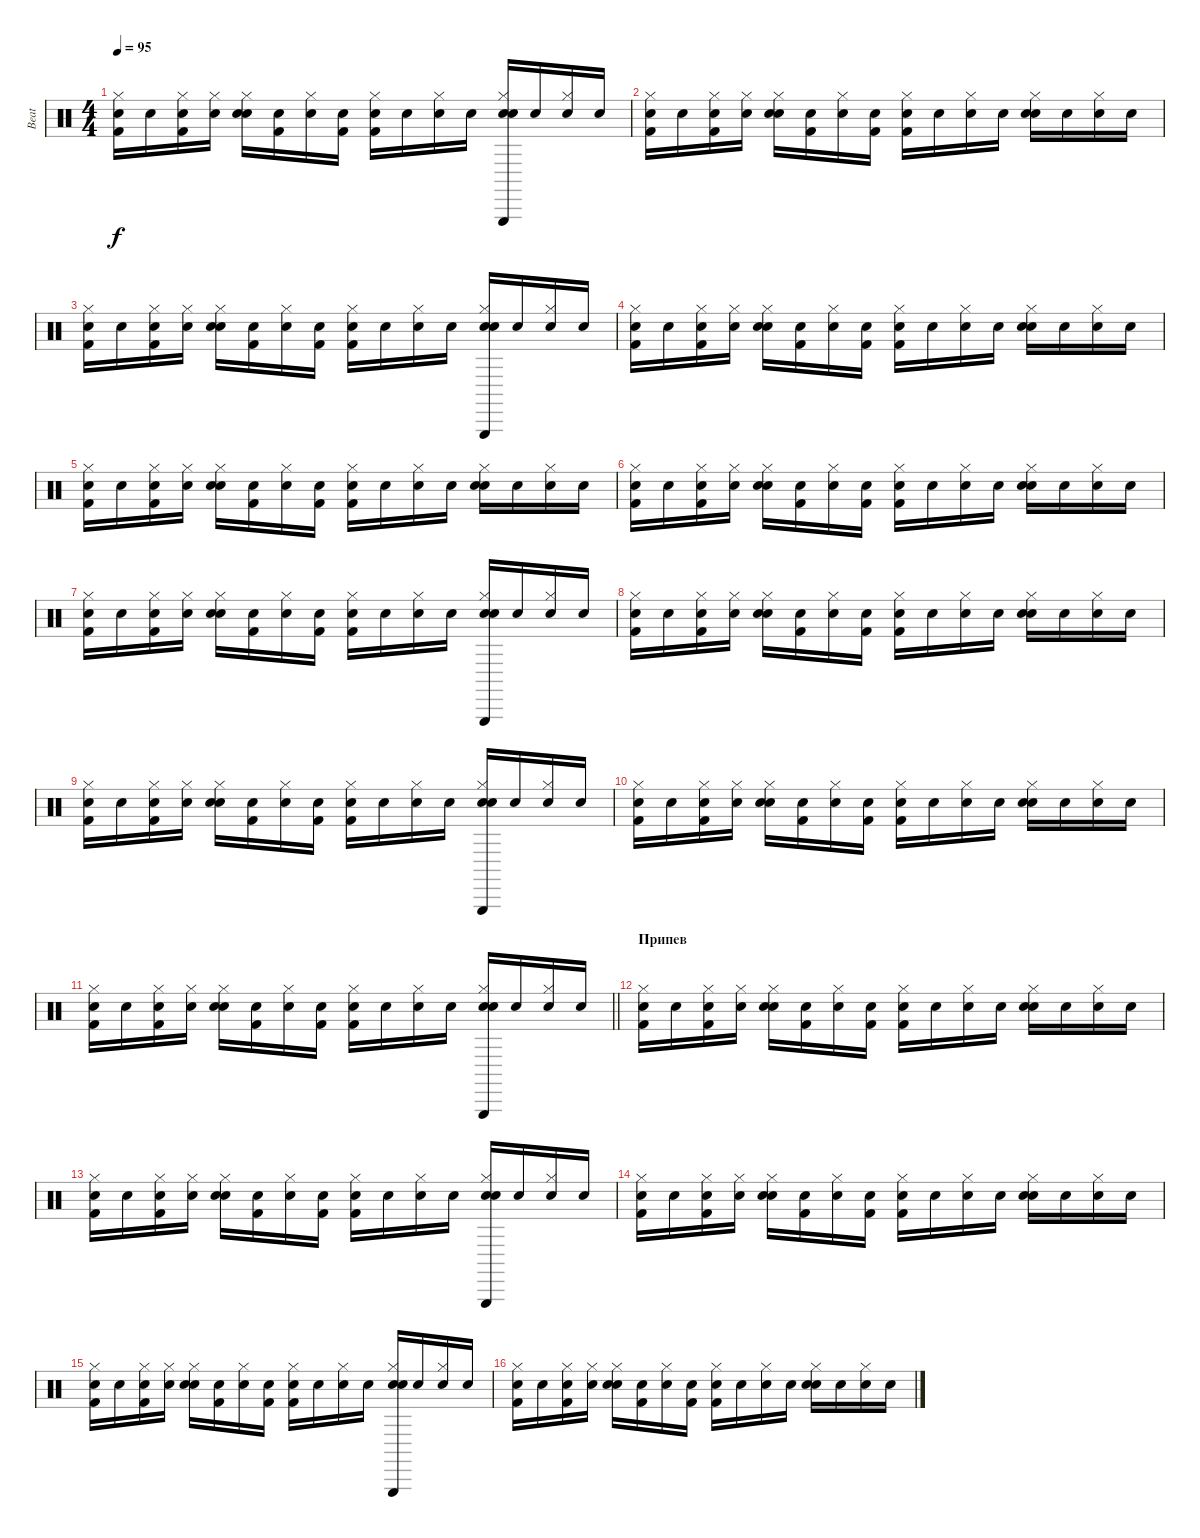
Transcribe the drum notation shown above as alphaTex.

\track ("Beat" "Beat") {instrument percussion}
\staff {score}
\articulation defaults
\ts (4 4)
\tempo 95
\clef neutral
\ks c
("Snare (hit)"{x} "Kick (hit) 2" "Hi-Hat (closed)").16{dy f} "Snare (hit)"{x}.16 ("Snare (hit)"{x} "Kick (hit) 2" "Hi-Hat (closed)").16 ("Snare (hit)"{x} "Hi-Hat (closed)").16 ("Snare (hit)"{x} "Electric Snare (hit)" "Hi-Hat (closed)").16 ("Snare (hit)"{x} "Kick (hit) 2").16 ("Snare (hit)"{x} "Hi-Hat (closed)").16 ("Snare (hit)"{x} "Kick (hit) 2").16 ("Snare (hit)"{x} "Kick (hit) 2" "Hi-Hat (closed)").16 "Snare (hit)"{x}.16 ("Snare (hit)"{x} "Hi-Hat (closed)").16 "Snare (hit)"{x}.16 ("Snare (hit)"{x} "Triangle (hit)" "Electric Snare (hit)" "Hi-Hat (closed)").16 "Snare (hit)"{x}.16 ("Snare (hit)"{x} "Hi-Hat (closed)").16 "Snare (hit)"{x}.16 |
("Snare (hit)"{x} "Kick (hit) 2" "Hi-Hat (closed)").16 "Snare (hit)"{x}.16 ("Snare (hit)"{x} "Kick (hit) 2" "Hi-Hat (closed)").16 ("Snare (hit)"{x} "Hi-Hat (closed)").16 ("Snare (hit)"{x} "Electric Snare (hit)" "Hi-Hat (closed)").16 ("Snare (hit)"{x} "Kick (hit) 2").16 ("Snare (hit)"{x} "Hi-Hat (closed)").16 ("Snare (hit)"{x} "Kick (hit) 2").16 ("Snare (hit)"{x} "Kick (hit) 2" "Hi-Hat (closed)").16 "Snare (hit)"{x}.16 ("Snare (hit)"{x} "Hi-Hat (closed)").16 "Snare (hit)"{x}.16 ("Snare (hit)"{x} "Electric Snare (hit)" "Hi-Hat (closed)").16 "Snare (hit)"{x}.16 ("Snare (hit)"{x} "Hi-Hat (closed)").16 "Snare (hit)"{x}.16 |
("Snare (hit)"{x} "Kick (hit) 2" "Hi-Hat (closed)").16 "Snare (hit)"{x}.16 ("Snare (hit)"{x} "Kick (hit) 2" "Hi-Hat (closed)").16 ("Snare (hit)"{x} "Hi-Hat (closed)").16 ("Snare (hit)"{x} "Electric Snare (hit)" "Hi-Hat (closed)").16 ("Snare (hit)"{x} "Kick (hit) 2").16 ("Snare (hit)"{x} "Hi-Hat (closed)").16 ("Snare (hit)"{x} "Kick (hit) 2").16 ("Snare (hit)"{x} "Kick (hit) 2" "Hi-Hat (closed)").16 "Snare (hit)"{x}.16 ("Snare (hit)"{x} "Hi-Hat (closed)").16 "Snare (hit)"{x}.16 ("Snare (hit)"{x} "Triangle (hit)" "Electric Snare (hit)" "Hi-Hat (closed)").16 "Snare (hit)"{x}.16 ("Snare (hit)"{x} "Hi-Hat (closed)").16 "Snare (hit)"{x}.16 |
("Snare (hit)"{x} "Kick (hit) 2" "Hi-Hat (closed)").16 "Snare (hit)"{x}.16 ("Snare (hit)"{x} "Kick (hit) 2" "Hi-Hat (closed)").16 ("Snare (hit)"{x} "Hi-Hat (closed)").16 ("Snare (hit)"{x} "Electric Snare (hit)" "Hi-Hat (closed)").16 ("Snare (hit)"{x} "Kick (hit) 2").16 ("Snare (hit)"{x} "Hi-Hat (closed)").16 ("Snare (hit)"{x} "Kick (hit) 2").16 ("Snare (hit)"{x} "Kick (hit) 2" "Hi-Hat (closed)").16 "Snare (hit)"{x}.16 ("Snare (hit)"{x} "Hi-Hat (closed)").16 "Snare (hit)"{x}.16 ("Snare (hit)"{x} "Electric Snare (hit)" "Hi-Hat (closed)").16 "Snare (hit)"{x}.16 ("Snare (hit)"{x} "Hi-Hat (closed)").16 "Snare (hit)"{x}.16 |
("Snare (hit)"{x} "Kick (hit) 2" "Hi-Hat (closed)").16 "Snare (hit)"{x}.16 ("Snare (hit)"{x} "Kick (hit) 2" "Hi-Hat (closed)").16 ("Snare (hit)"{x} "Hi-Hat (closed)").16 ("Snare (hit)"{x} "Electric Snare (hit)" "Hi-Hat (closed)").16 ("Snare (hit)"{x} "Kick (hit) 2").16 ("Snare (hit)"{x} "Hi-Hat (closed)").16 ("Snare (hit)"{x} "Kick (hit) 2").16 ("Snare (hit)"{x} "Kick (hit) 2" "Hi-Hat (closed)").16 "Snare (hit)"{x}.16 ("Snare (hit)"{x} "Hi-Hat (closed)").16 "Snare (hit)"{x}.16 ("Snare (hit)"{x} "Electric Snare (hit)" "Hi-Hat (closed)").16 "Snare (hit)"{x}.16 ("Snare (hit)"{x} "Hi-Hat (closed)").16 "Snare (hit)"{x}.16 |
("Snare (hit)"{x} "Kick (hit) 2" "Hi-Hat (closed)").16 "Snare (hit)"{x}.16 ("Snare (hit)"{x} "Kick (hit) 2" "Hi-Hat (closed)").16 ("Snare (hit)"{x} "Hi-Hat (closed)").16 ("Snare (hit)"{x} "Electric Snare (hit)" "Hi-Hat (closed)").16 ("Snare (hit)"{x} "Kick (hit) 2").16 ("Snare (hit)"{x} "Hi-Hat (closed)").16 ("Snare (hit)"{x} "Kick (hit) 2").16 ("Snare (hit)"{x} "Kick (hit) 2" "Hi-Hat (closed)").16 "Snare (hit)"{x}.16 ("Snare (hit)"{x} "Hi-Hat (closed)").16 "Snare (hit)"{x}.16 ("Snare (hit)"{x} "Electric Snare (hit)" "Hi-Hat (closed)").16 "Snare (hit)"{x}.16 ("Snare (hit)"{x} "Hi-Hat (closed)").16 "Snare (hit)"{x}.16 |
("Snare (hit)"{x} "Kick (hit) 2" "Hi-Hat (closed)").16 "Snare (hit)"{x}.16 ("Snare (hit)"{x} "Kick (hit) 2" "Hi-Hat (closed)").16 ("Snare (hit)"{x} "Hi-Hat (closed)").16 ("Snare (hit)"{x} "Electric Snare (hit)" "Hi-Hat (closed)").16 ("Snare (hit)"{x} "Kick (hit) 2").16 ("Snare (hit)"{x} "Hi-Hat (closed)").16 ("Snare (hit)"{x} "Kick (hit) 2").16 ("Snare (hit)"{x} "Kick (hit) 2" "Hi-Hat (closed)").16 "Snare (hit)"{x}.16 ("Snare (hit)"{x} "Hi-Hat (closed)").16 "Snare (hit)"{x}.16 ("Snare (hit)"{x} "Triangle (hit)" "Electric Snare (hit)" "Hi-Hat (closed)").16 "Snare (hit)"{x}.16 ("Snare (hit)"{x} "Hi-Hat (closed)").16 "Snare (hit)"{x}.16 |
("Snare (hit)"{x} "Kick (hit) 2" "Hi-Hat (closed)").16 "Snare (hit)"{x}.16 ("Snare (hit)"{x} "Kick (hit) 2" "Hi-Hat (closed)").16 ("Snare (hit)"{x} "Hi-Hat (closed)").16 ("Snare (hit)"{x} "Electric Snare (hit)" "Hi-Hat (closed)").16 ("Snare (hit)"{x} "Kick (hit) 2").16 ("Snare (hit)"{x} "Hi-Hat (closed)").16 ("Snare (hit)"{x} "Kick (hit) 2").16 ("Snare (hit)"{x} "Kick (hit) 2" "Hi-Hat (closed)").16 "Snare (hit)"{x}.16 ("Snare (hit)"{x} "Hi-Hat (closed)").16 "Snare (hit)"{x}.16 ("Snare (hit)"{x} "Electric Snare (hit)" "Hi-Hat (closed)").16 "Snare (hit)"{x}.16 ("Snare (hit)"{x} "Hi-Hat (closed)").16 "Snare (hit)"{x}.16 |
("Snare (hit)"{x} "Kick (hit) 2" "Hi-Hat (closed)").16 "Snare (hit)"{x}.16 ("Snare (hit)"{x} "Kick (hit) 2" "Hi-Hat (closed)").16 ("Snare (hit)"{x} "Hi-Hat (closed)").16 ("Snare (hit)"{x} "Electric Snare (hit)" "Hi-Hat (closed)").16 ("Snare (hit)"{x} "Kick (hit) 2").16 ("Snare (hit)"{x} "Hi-Hat (closed)").16 ("Snare (hit)"{x} "Kick (hit) 2").16 ("Snare (hit)"{x} "Kick (hit) 2" "Hi-Hat (closed)").16 "Snare (hit)"{x}.16 ("Snare (hit)"{x} "Hi-Hat (closed)").16 "Snare (hit)"{x}.16 ("Snare (hit)"{x} "Triangle (hit)" "Electric Snare (hit)" "Hi-Hat (closed)").16 "Snare (hit)"{x}.16 ("Snare (hit)"{x} "Hi-Hat (closed)").16 "Snare (hit)"{x}.16 |
("Snare (hit)"{x} "Kick (hit) 2" "Hi-Hat (closed)").16 "Snare (hit)"{x}.16 ("Snare (hit)"{x} "Kick (hit) 2" "Hi-Hat (closed)").16 ("Snare (hit)"{x} "Hi-Hat (closed)").16 ("Snare (hit)"{x} "Electric Snare (hit)" "Hi-Hat (closed)").16 ("Snare (hit)"{x} "Kick (hit) 2").16 ("Snare (hit)"{x} "Hi-Hat (closed)").16 ("Snare (hit)"{x} "Kick (hit) 2").16 ("Snare (hit)"{x} "Kick (hit) 2" "Hi-Hat (closed)").16 "Snare (hit)"{x}.16 ("Snare (hit)"{x} "Hi-Hat (closed)").16 "Snare (hit)"{x}.16 ("Snare (hit)"{x} "Electric Snare (hit)" "Hi-Hat (closed)").16 "Snare (hit)"{x}.16 ("Snare (hit)"{x} "Hi-Hat (closed)").16 "Snare (hit)"{x}.16 |
\barLineRight lightlight
("Snare (hit)"{x} "Kick (hit) 2" "Hi-Hat (closed)").16 "Snare (hit)"{x}.16 ("Snare (hit)"{x} "Kick (hit) 2" "Hi-Hat (closed)").16 ("Snare (hit)"{x} "Hi-Hat (closed)").16 ("Snare (hit)"{x} "Electric Snare (hit)" "Hi-Hat (closed)").16 ("Snare (hit)"{x} "Kick (hit) 2").16 ("Snare (hit)"{x} "Hi-Hat (closed)").16 ("Snare (hit)"{x} "Kick (hit) 2").16 ("Snare (hit)"{x} "Kick (hit) 2" "Hi-Hat (closed)").16 "Snare (hit)"{x}.16 ("Snare (hit)"{x} "Hi-Hat (closed)").16 "Snare (hit)"{x}.16 ("Snare (hit)"{x} "Triangle (hit)" "Electric Snare (hit)" "Hi-Hat (closed)").16 "Snare (hit)"{x}.16 ("Snare (hit)"{x} "Hi-Hat (closed)").16 "Snare (hit)"{x}.16 |
\section ("" "Припев")
("Snare (hit)"{x} "Kick (hit) 2" "Hi-Hat (closed)").16 "Snare (hit)"{x}.16 ("Snare (hit)"{x} "Kick (hit) 2" "Hi-Hat (closed)").16 ("Snare (hit)"{x} "Hi-Hat (closed)").16 ("Snare (hit)"{x} "Electric Snare (hit)" "Hi-Hat (closed)").16 ("Snare (hit)"{x} "Kick (hit) 2").16 ("Snare (hit)"{x} "Hi-Hat (closed)").16 ("Snare (hit)"{x} "Kick (hit) 2").16 ("Snare (hit)"{x} "Kick (hit) 2" "Hi-Hat (closed)").16 "Snare (hit)"{x}.16 ("Snare (hit)"{x} "Hi-Hat (closed)").16 "Snare (hit)"{x}.16 ("Snare (hit)"{x} "Electric Snare (hit)" "Hi-Hat (closed)").16 "Snare (hit)"{x}.16 ("Snare (hit)"{x} "Hi-Hat (closed)").16 "Snare (hit)"{x}.16 |
("Snare (hit)"{x} "Kick (hit) 2" "Hi-Hat (closed)").16 "Snare (hit)"{x}.16 ("Snare (hit)"{x} "Kick (hit) 2" "Hi-Hat (closed)").16 ("Snare (hit)"{x} "Hi-Hat (closed)").16 ("Snare (hit)"{x} "Electric Snare (hit)" "Hi-Hat (closed)").16 ("Snare (hit)"{x} "Kick (hit) 2").16 ("Snare (hit)"{x} "Hi-Hat (closed)").16 ("Snare (hit)"{x} "Kick (hit) 2").16 ("Snare (hit)"{x} "Kick (hit) 2" "Hi-Hat (closed)").16 "Snare (hit)"{x}.16 ("Snare (hit)"{x} "Hi-Hat (closed)").16 "Snare (hit)"{x}.16 ("Snare (hit)"{x} "Triangle (hit)" "Electric Snare (hit)" "Hi-Hat (closed)").16 "Snare (hit)"{x}.16 ("Snare (hit)"{x} "Hi-Hat (closed)").16 "Snare (hit)"{x}.16 |
("Snare (hit)"{x} "Kick (hit) 2" "Hi-Hat (closed)").16 "Snare (hit)"{x}.16 ("Snare (hit)"{x} "Kick (hit) 2" "Hi-Hat (closed)").16 ("Snare (hit)"{x} "Hi-Hat (closed)").16 ("Snare (hit)"{x} "Electric Snare (hit)" "Hi-Hat (closed)").16 ("Snare (hit)"{x} "Kick (hit) 2").16 ("Snare (hit)"{x} "Hi-Hat (closed)").16 ("Snare (hit)"{x} "Kick (hit) 2").16 ("Snare (hit)"{x} "Kick (hit) 2" "Hi-Hat (closed)").16 "Snare (hit)"{x}.16 ("Snare (hit)"{x} "Hi-Hat (closed)").16 "Snare (hit)"{x}.16 ("Snare (hit)"{x} "Electric Snare (hit)" "Hi-Hat (closed)").16 "Snare (hit)"{x}.16 ("Snare (hit)"{x} "Hi-Hat (closed)").16 "Snare (hit)"{x}.16 |
("Snare (hit)"{x} "Kick (hit) 2" "Hi-Hat (closed)").16 "Snare (hit)"{x}.16 ("Snare (hit)"{x} "Kick (hit) 2" "Hi-Hat (closed)").16 ("Snare (hit)"{x} "Hi-Hat (closed)").16 ("Snare (hit)"{x} "Electric Snare (hit)" "Hi-Hat (closed)").16 ("Snare (hit)"{x} "Kick (hit) 2").16 ("Snare (hit)"{x} "Hi-Hat (closed)").16 ("Snare (hit)"{x} "Kick (hit) 2").16 ("Snare (hit)"{x} "Kick (hit) 2" "Hi-Hat (closed)").16 "Snare (hit)"{x}.16 ("Snare (hit)"{x} "Hi-Hat (closed)").16 "Snare (hit)"{x}.16 ("Snare (hit)"{x} "Triangle (hit)" "Electric Snare (hit)" "Hi-Hat (closed)").16 "Snare (hit)"{x}.16 ("Snare (hit)"{x} "Hi-Hat (closed)").16 "Snare (hit)"{x}.16 |
("Snare (hit)"{x} "Kick (hit) 2" "Hi-Hat (closed)").16 "Snare (hit)"{x}.16 ("Snare (hit)"{x} "Kick (hit) 2" "Hi-Hat (closed)").16 ("Snare (hit)"{x} "Hi-Hat (closed)").16 ("Snare (hit)"{x} "Electric Snare (hit)" "Hi-Hat (closed)").16 ("Snare (hit)"{x} "Kick (hit) 2").16 ("Snare (hit)"{x} "Hi-Hat (closed)").16 ("Snare (hit)"{x} "Kick (hit) 2").16 ("Snare (hit)"{x} "Kick (hit) 2" "Hi-Hat (closed)").16 "Snare (hit)"{x}.16 ("Snare (hit)"{x} "Hi-Hat (closed)").16 "Snare (hit)"{x}.16 ("Snare (hit)"{x} "Electric Snare (hit)" "Hi-Hat (closed)").16 "Snare (hit)"{x}.16 ("Snare (hit)"{x} "Hi-Hat (closed)").16 "Snare (hit)"{x}.16
